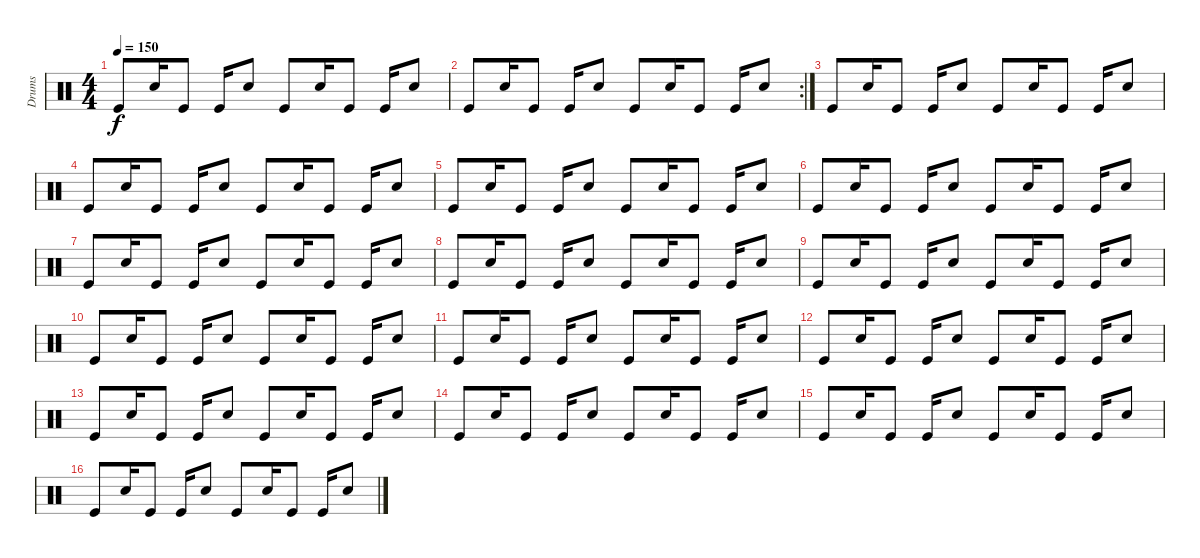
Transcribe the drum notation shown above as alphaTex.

\track ("Drums" "Drums") {instrument percussion}
\staff {score}
\articulation defaults
\ts (4 4)
\tempo 150
\clef neutral
\ks c "Kick (hit)".8{dy f} "Electric Snare (hit)".16 "Kick (hit)".8 "Kick (hit)".16 "Electric Snare (hit)".8 "Kick (hit)".8 "Electric Snare (hit)".16 "Kick (hit)".8 "Kick (hit)".16 "Electric Snare (hit)".8
|
\rc 2 "Kick (hit)".8 "Electric Snare (hit)".16 "Kick (hit)".8 "Kick (hit)".16 "Electric Snare (hit)".8 "Kick (hit)".8 "Electric Snare (hit)".16 "Kick (hit)".8 "Kick (hit)".16 "Electric Snare (hit)".8
|
"Kick (hit)".8 "Electric Snare (hit)".16 "Kick (hit)".8 "Kick (hit)".16 "Electric Snare (hit)".8 "Kick (hit)".8 "Electric Snare (hit)".16 "Kick (hit)".8 "Kick (hit)".16 "Electric Snare (hit)".8 |
"Kick (hit)".8 "Electric Snare (hit)".16 "Kick (hit)".8 "Kick (hit)".16 "Electric Snare (hit)".8 "Kick (hit)".8 "Electric Snare (hit)".16 "Kick (hit)".8 "Kick (hit)".16 "Electric Snare (hit)".8 |
"Kick (hit)".8 "Electric Snare (hit)".16 "Kick (hit)".8 "Kick (hit)".16 "Electric Snare (hit)".8 "Kick (hit)".8 "Electric Snare (hit)".16 "Kick (hit)".8 "Kick (hit)".16 "Electric Snare (hit)".8 |
"Kick (hit)".8 "Electric Snare (hit)".16 "Kick (hit)".8 "Kick (hit)".16 "Electric Snare (hit)".8 "Kick (hit)".8 "Electric Snare (hit)".16 "Kick (hit)".8 "Kick (hit)".16 "Electric Snare (hit)".8 |
"Kick (hit)".8 "Electric Snare (hit)".16 "Kick (hit)".8 "Kick (hit)".16 "Electric Snare (hit)".8 "Kick (hit)".8 "Electric Snare (hit)".16 "Kick (hit)".8 "Kick (hit)".16 "Electric Snare (hit)".8 |
"Kick (hit)".8 "Electric Snare (hit)".16 "Kick (hit)".8 "Kick (hit)".16 "Electric Snare (hit)".8 "Kick (hit)".8 "Electric Snare (hit)".16 "Kick (hit)".8 "Kick (hit)".16 "Electric Snare (hit)".8 |
"Kick (hit)".8 "Electric Snare (hit)".16 "Kick (hit)".8 "Kick (hit)".16 "Electric Snare (hit)".8 "Kick (hit)".8 "Electric Snare (hit)".16 "Kick (hit)".8 "Kick (hit)".16 "Electric Snare (hit)".8 |
"Kick (hit)".8 "Electric Snare (hit)".16 "Kick (hit)".8 "Kick (hit)".16 "Electric Snare (hit)".8 "Kick (hit)".8 "Electric Snare (hit)".16 "Kick (hit)".8 "Kick (hit)".16 "Electric Snare (hit)".8 |
"Kick (hit)".8 "Electric Snare (hit)".16 "Kick (hit)".8 "Kick (hit)".16 "Electric Snare (hit)".8 "Kick (hit)".8 "Electric Snare (hit)".16 "Kick (hit)".8 "Kick (hit)".16 "Electric Snare (hit)".8 |
"Kick (hit)".8 "Electric Snare (hit)".16 "Kick (hit)".8 "Kick (hit)".16 "Electric Snare (hit)".8 "Kick (hit)".8 "Electric Snare (hit)".16 "Kick (hit)".8 "Kick (hit)".16 "Electric Snare (hit)".8 |
"Kick (hit)".8 "Electric Snare (hit)".16 "Kick (hit)".8 "Kick (hit)".16 "Electric Snare (hit)".8 "Kick (hit)".8 "Electric Snare (hit)".16 "Kick (hit)".8 "Kick (hit)".16 "Electric Snare (hit)".8 |
"Kick (hit)".8 "Electric Snare (hit)".16 "Kick (hit)".8 "Kick (hit)".16 "Electric Snare (hit)".8 "Kick (hit)".8 "Electric Snare (hit)".16 "Kick (hit)".8 "Kick (hit)".16 "Electric Snare (hit)".8 |
"Kick (hit)".8 "Electric Snare (hit)".16 "Kick (hit)".8 "Kick (hit)".16 "Electric Snare (hit)".8 "Kick (hit)".8 "Electric Snare (hit)".16 "Kick (hit)".8 "Kick (hit)".16 "Electric Snare (hit)".8 |
"Kick (hit)".8 "Electric Snare (hit)".16 "Kick (hit)".8 "Kick (hit)".16 "Electric Snare (hit)".8 "Kick (hit)".8 "Electric Snare (hit)".16 "Kick (hit)".8 "Kick (hit)".16 "Electric Snare (hit)".8
